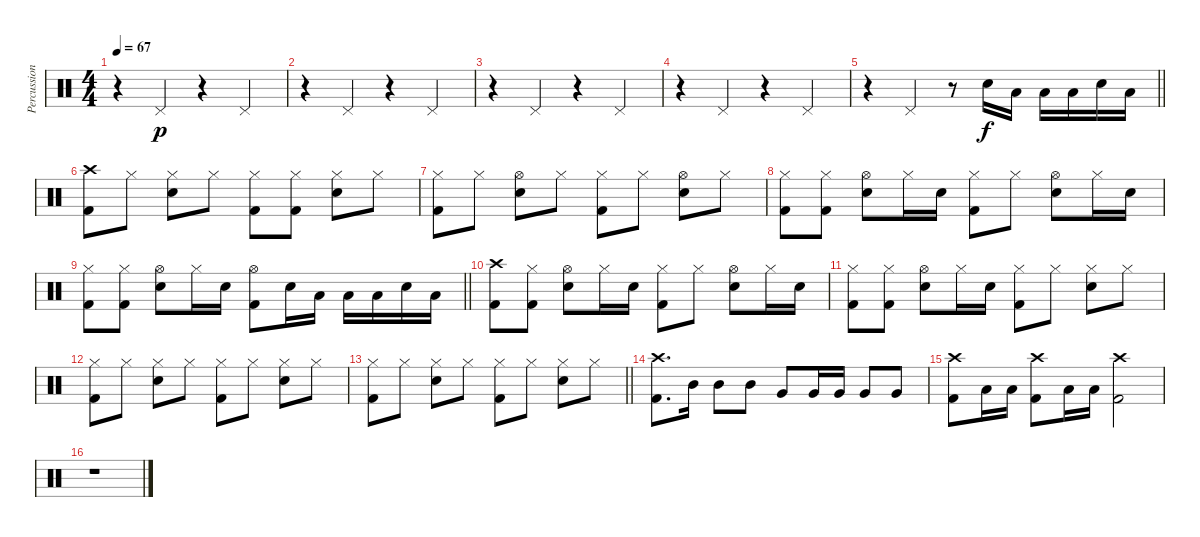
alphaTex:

\track ("Percussion" "Percussion") {instrument percussion}
\staff {score}
\articulation defaults
\ts (4 4)
\tempo 67
\clef neutral
\ks c
r.4{dy p} "Pedal Hi-Hat (hit)".4 r.4 "Pedal Hi-Hat (hit)".4 |
r.4 "Pedal Hi-Hat (hit)".4 r.4 "Pedal Hi-Hat (hit)".4 |
r.4 "Pedal Hi-Hat (hit)".4 r.4 "Pedal Hi-Hat (hit)".4 |
r.4 "Pedal Hi-Hat (hit)".4 r.4 "Pedal Hi-Hat (hit)".4 |
\barLineRight lightlight
r.4 "Pedal Hi-Hat (hit)".4 r.8 "Snare (hit) 2".16{dy f} "Low Floor Tom (hit)".16 "Low Floor Tom (hit)".16 "Low Floor Tom (hit)".16 "Snare (hit) 2".16 "Low Floor Tom (hit)".16 |
("Crash high (hit)" "Kick (hit) 2").8 "Hi-Hat (closed)".8 ("Hi-Hat (closed)" "Snare (hit) 2").8 "Hi-Hat (closed)".8 ("Hi-Hat (closed)" "Kick (hit) 2").8 ("Hi-Hat (closed)" "Kick (hit) 2").8 ("Hi-Hat (closed)" "Snare (hit) 2").8 "Hi-Hat (closed)".8 |
("Hi-Hat (closed)" "Kick (hit) 2").8 "Hi-Hat (closed)".8 ("Hi-Hat (open)" "Snare (hit) 2").8 "Hi-Hat (closed)".8 ("Hi-Hat (closed)" "Kick (hit) 2").8 "Hi-Hat (closed)".8 ("Hi-Hat (open)" "Snare (hit) 2").8 "Hi-Hat (closed)".8 |
("Hi-Hat (closed)" "Kick (hit) 2").8 ("Hi-Hat (closed)" "Kick (hit) 2").8 ("Hi-Hat (open)" "Snare (hit) 2").8 "Hi-Hat (closed)".16 "Snare (hit) 2".16 ("Hi-Hat (closed)" "Kick (hit) 2").8 "Hi-Hat (closed)".8 ("Hi-Hat (open)" "Snare (hit) 2").8 "Hi-Hat (closed)".16 "Snare (hit) 2".16 |
\barLineRight lightlight
("Hi-Hat (closed)" "Kick (hit) 2").8 ("Hi-Hat (closed)" "Kick (hit) 2").8 ("Hi-Hat (open)" "Snare (hit) 2").8 "Hi-Hat (closed)".16 "Snare (hit) 2".16 ("Hi-Hat (open)" "Kick (hit) 2").8 "Snare (hit) 2".16 "Low Floor Tom (hit)".16 "Low Floor Tom (hit)".16 "Low Floor Tom (hit)".16 "Snare (hit) 2".16 "Low Floor Tom (hit)".16 |
("Crash high (hit)" "Kick (hit) 2").8 ("Hi-Hat (closed)" "Kick (hit) 2").8 ("Hi-Hat (open)" "Snare (hit) 2").8 "Hi-Hat (closed)".16 "Snare (hit) 2".16 ("Hi-Hat (closed)" "Kick (hit) 2").8 "Hi-Hat (closed)".8 ("Hi-Hat (open)" "Snare (hit) 2").8 "Hi-Hat (closed)".16 "Snare (hit) 2".16 |
("Hi-Hat (closed)" "Kick (hit) 2").8 ("Hi-Hat (closed)" "Kick (hit) 2").8 ("Hi-Hat (open)" "Snare (hit) 2").8 "Hi-Hat (closed)".16 "Snare (hit) 2".16 ("Hi-Hat (closed)" "Kick (hit) 2").8 "Hi-Hat (closed)".8 ("Hi-Hat (closed)" "Snare (hit) 2").8 "Hi-Hat (closed)".8 |
("Hi-Hat (closed)" "Kick (hit) 2").8 "Hi-Hat (closed)".8 ("Hi-Hat (closed)" "Snare (hit) 2").8 "Hi-Hat (closed)".8 ("Hi-Hat (closed)" "Kick (hit) 2").8 "Hi-Hat (closed)".8 ("Hi-Hat (closed)" "Snare (hit) 2").8 "Hi-Hat (closed)".8 |
\barLineRight lightlight
("Hi-Hat (closed)" "Kick (hit) 2").8 "Hi-Hat (closed)".8 ("Hi-Hat (closed)" "Snare (hit) 2").8 "Hi-Hat (closed)".8 ("Hi-Hat (closed)" "Kick (hit) 2").8 "Hi-Hat (closed)".8 ("Hi-Hat (closed)" "Snare (hit) 2").8 "Hi-Hat (closed)".8 |
("Crash high (hit)" "Kick (hit) 2").8{d} "Mid Tom (hit)".16 "Mid Tom (hit)".8 "Mid Tom (hit)".8 "Very Low Tom (hit)".8 "Very Low Tom (hit)".16 "Very Low Tom (hit)".16 "Very Low Tom (hit)".8 "Very Low Tom (hit)".8 |
("Crash high (hit)" "Kick (hit) 2").8 "Low Tom (hit)".16 "Low Floor Tom (hit)".16 ("Crash high (hit)" "Kick (hit) 2").8 "Low Tom (hit)".16 "Low Floor Tom (hit)".16 ("Crash high (hit)" "Kick (hit) 2").2 |
r.1
